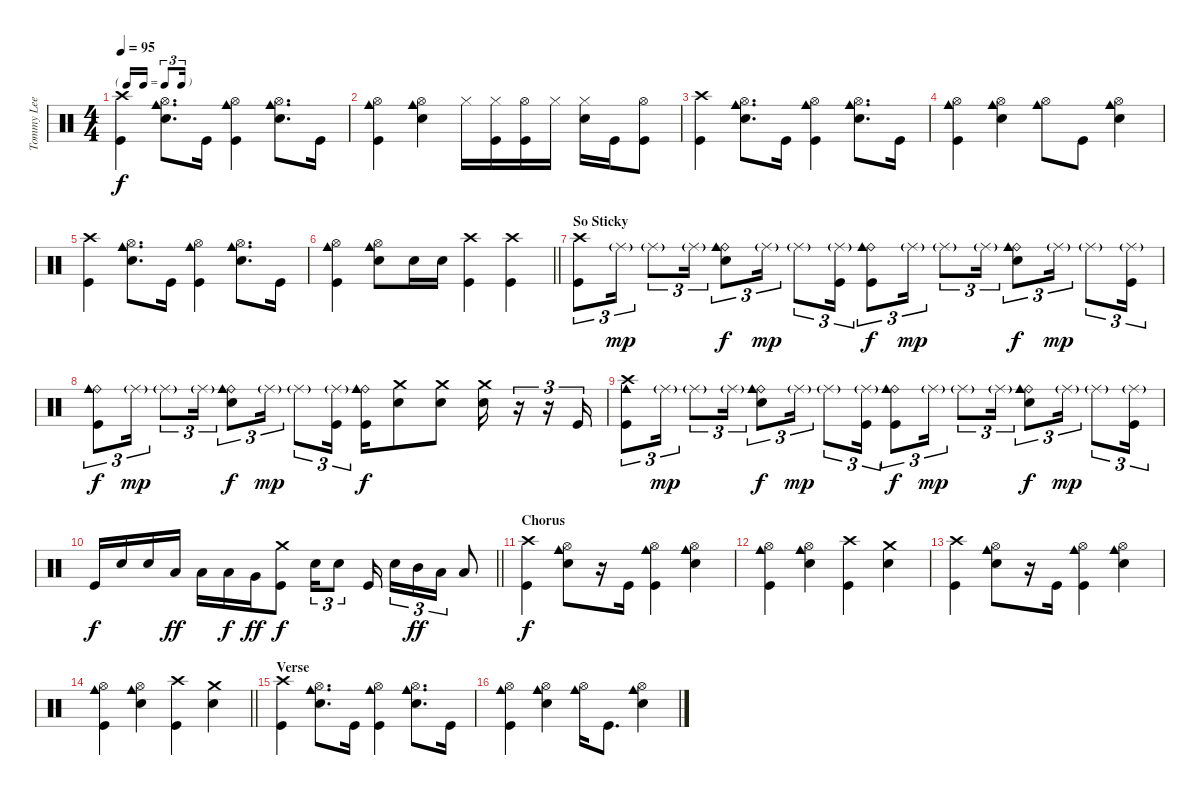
\track ("Tommy Lee" "Tommy Lee") {instrument percussion}
\staff {score}
\articulation defaults
\ts (4 4)
\tf triplet16th
\tempo 95
\clef neutral
\ks c
("Crash high (hit)" "Kick (hit)").4{dy f} ("Hi-Hat (open)" "Cowbell medium (hit)" "Snare (hit) 2").8{d} "Kick (hit)".16 ("Hi-Hat (open)" "Cowbell medium (hit)" "Kick (hit)").4 ("Hi-Hat (open)" "Cowbell medium (hit)" "Snare (hit) 2").8{d} "Kick (hit)".16 |
("Hi-Hat (open)" "Cowbell medium (hit)" "Kick (hit)").4 ("Hi-Hat (open)" "Cowbell medium (hit)" "Snare (hit) 2").4 "Hi-Hat (closed)".16 ("Hi-Hat (closed)" "Kick (hit)").16 ("Hi-Hat (open)" "Kick (hit)").16 "Hi-Hat (closed)".16 ("Hi-Hat (closed)" "Snare (hit) 2").16 "Kick (hit)".16 ("Hi-Hat (open)" "Kick (hit)").8 |
("Crash high (hit)" "Kick (hit)").4 ("Hi-Hat (open)" "Cowbell medium (hit)" "Snare (hit) 2").8{d} "Kick (hit)".16 ("Hi-Hat (open)" "Cowbell medium (hit)" "Kick (hit)").4 ("Hi-Hat (open)" "Cowbell medium (hit)" "Snare (hit) 2").8{d} "Kick (hit)".16 |
("Hi-Hat (open)" "Cowbell medium (hit)" "Kick (hit)").4 ("Hi-Hat (open)" "Cowbell medium (hit)" "Snare (hit) 2").4 ("Hi-Hat (open)" "Cowbell medium (hit)").8 "Kick (hit)".8 ("Hi-Hat (open)" "Cowbell medium (hit)" "Snare (hit) 2").4 |
("Crash high (hit)" "Kick (hit)").4 ("Hi-Hat (open)" "Cowbell medium (hit)" "Snare (hit) 2").8{d} "Kick (hit)".16 ("Hi-Hat (open)" "Cowbell medium (hit)" "Kick (hit)").4 ("Hi-Hat (open)" "Cowbell medium (hit)" "Snare (hit) 2").8{d} "Kick (hit)".16 |
\barLineRight lightlight
("Hi-Hat (open)" "Cowbell medium (hit)" "Kick (hit)").4 ("Hi-Hat (open)" "Cowbell medium (hit)" "Snare (hit) 2").8 "Snare (hit) 2".16 "Snare (hit) 2".16 ("Crash high (hit)" "Kick (hit)").4 ("Crash high (hit)" "Kick (hit)").4 |
\section ("" "So Sticky")
("Crash high (hit)" "Kick (hit)").8{tu (3 2)} "Ride (middle)"{g}.16{tu (3 2) dy mp} "Ride (middle)"{g}.8{tu (3 2)} "Ride (middle)"{g}.16{tu (3 2)} ("Ride (bell)" "Cowbell medium (hit)" "Snare (hit) 2").8{tu (3 2) dy f} "Ride (middle)"{g}.16{tu (3 2) dy mp} "Ride (middle)"{g}.8{tu (3 2)} ("Ride (middle)"{g} "Kick (hit)").16{tu (3 2)} ("Ride (bell)" "Cowbell medium (hit)" "Kick (hit)").8{tu (3 2) dy f} "Ride (middle)"{g}.16{tu (3 2) dy mp} "Ride (middle)"{g}.8{tu (3 2)} "Ride (middle)"{g}.16{tu (3 2)} ("Ride (bell)" "Cowbell medium (hit)" "Snare (hit) 2").8{tu (3 2) dy f} "Ride (middle)"{g}.16{tu (3 2) dy mp} "Ride (middle)"{g}.8{tu (3 2)} ("Ride (middle)"{g} "Kick (hit)").16{tu (3 2)} |
("Ride (bell)" "Cowbell medium (hit)" "Kick (hit)").8{tu (3 2) dy f} "Ride (middle)"{g}.16{tu (3 2) dy mp} "Ride (middle)"{g}.8{tu (3 2)} "Ride (middle)"{g}.16{tu (3 2)} ("Ride (bell)" "Cowbell medium (hit)" "Snare (hit) 2").8{tu (3 2) dy f} "Ride (middle)"{g}.16{tu (3 2) dy mp} "Ride (middle)"{g}.8{tu (3 2)} ("Ride (middle)"{g} "Kick (hit)").16{tu (3 2)} ("Ride (bell)" "Cowbell medium (hit)" "Kick (hit)").16{dy f} ("Crash medium (hit)" "Snare (hit) 2").8 ("Crash medium (hit)" "Snare (hit) 2").8 ("Crash medium (hit)" "Snare (hit) 2").16 r.16{tu (3 2)} r.16{tu (3 2)} "Kick (hit)".16{tu (3 2)} |
("Crash high (hit)" "Cowbell medium (hit)" "Kick (hit)").8{tu (3 2)} "Ride (middle)"{g}.16{tu (3 2) dy mp} "Ride (middle)"{g}.8{tu (3 2)} "Ride (middle)"{g}.16{tu (3 2)} ("Ride (bell)" "Cowbell medium (hit)" "Snare (hit) 2").8{tu (3 2) dy f} "Ride (middle)"{g}.16{tu (3 2) dy mp} "Ride (middle)"{g}.8{tu (3 2)} ("Ride (middle)"{g} "Kick (hit)").16{tu (3 2)} ("Ride (bell)" "Cowbell medium (hit)" "Kick (hit)").8{tu (3 2) dy f} "Ride (middle)"{g}.16{tu (3 2) dy mp} "Ride (middle)"{g}.8{tu (3 2)} "Ride (middle)"{g}.16{tu (3 2)} ("Ride (bell)" "Cowbell medium (hit)" "Snare (hit) 2").8{tu (3 2) dy f} "Ride (middle)"{g}.16{tu (3 2) dy mp} "Ride (middle)"{g}.8{tu (3 2)} ("Ride (middle)"{g} "Kick (hit)").16{tu (3 2)} |
\barLineRight lightlight "Kick (hit)".16{dy f} "Snare (hit) 2".16 "Snare (hit) 2".16 "Low Tom (hit)".16{dy ff} "Low Tom (hit)".16 "Low Floor Tom (hit)".16{dy f} "Very Low Tom (hit)".16{dy ff}
("Crash medium (hit)" "Kick (hit)").8{dy f} "Snare (hit) 2".16{tu (3 2)} "Snare (hit) 2".8{tu (3 2)} "Kick (hit)".16 "Snare (hit) 2".16{tu (3 2)} "Mid Tom (hit)".16{tu (3 2) dy ff} "Low Tom (hit)".16{tu (3 2)} "Low Floor Tom (hit)".8 |
\section ("" "Chorus")
("Crash high (hit)" "Kick (hit)").4{dy f} ("Hi-Hat (open)" "Cowbell medium (hit)" "Snare (hit) 2").8 r.16 "Kick (hit)".16 ("Hi-Hat (open)" "Cowbell medium (hit)" "Kick (hit)").4 ("Hi-Hat (open)" "Cowbell medium (hit)" "Snare (hit) 2").4 |
("Hi-Hat (open)" "Cowbell medium (hit)" "Kick (hit)").4 ("Hi-Hat (open)" "Cowbell medium (hit)" "Snare (hit) 2").4 ("Crash high (hit)" "Kick (hit)").4 ("Crash medium (hit)" "Snare (hit) 2").4 |
("Crash high (hit)" "Kick (hit)").4 ("Hi-Hat (open)" "Cowbell medium (hit)" "Snare (hit) 2").8 r.16 "Kick (hit)".16 ("Hi-Hat (open)" "Cowbell medium (hit)" "Kick (hit)").4 ("Hi-Hat (open)" "Cowbell medium (hit)" "Snare (hit) 2").4 |
\barLineRight lightlight
("Hi-Hat (open)" "Cowbell medium (hit)" "Kick (hit)").4 ("Hi-Hat (open)" "Cowbell medium (hit)" "Snare (hit) 2").4 ("Crash high (hit)" "Kick (hit)").4 ("Crash medium (hit)" "Snare (hit) 2").4 |
\section ("" "Verse")
("Crash high (hit)" "Kick (hit)").4 ("Hi-Hat (open)" "Cowbell medium (hit)" "Snare (hit) 2").8{d} "Kick (hit)".16 ("Hi-Hat (open)" "Cowbell medium (hit)" "Kick (hit)").4 ("Hi-Hat (open)" "Cowbell medium (hit)" "Snare (hit) 2").8{d} "Kick (hit)".16 |
("Hi-Hat (open)" "Cowbell medium (hit)" "Kick (hit)").4 ("Hi-Hat (open)" "Cowbell medium (hit)" "Snare (hit) 2").4 ("Hi-Hat (open)" "Cowbell medium (hit)").16 "Kick (hit)".8{d} ("Hi-Hat (open)" "Cowbell medium (hit)" "Snare (hit) 2").4
